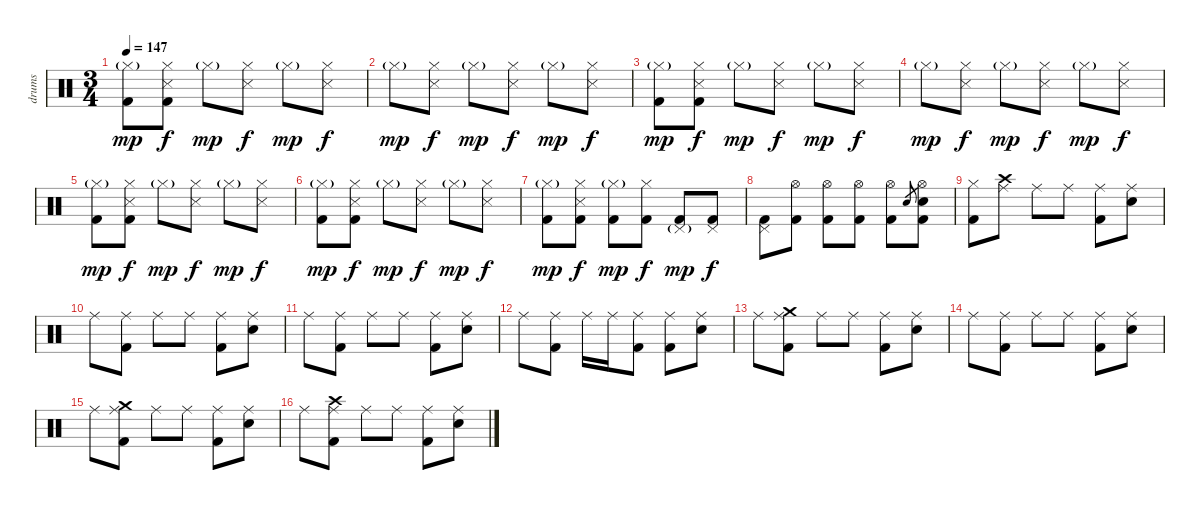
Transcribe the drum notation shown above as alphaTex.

\track ("drums" "drums") {instrument percussion}
\staff {score}
\articulation defaults
\ts (3 4)
\tempo 147
\clef neutral
\ks c
("Hi-Hat (closed)"{g} "Kick (hit) 2").8{dy mp} ("Hi-Hat (closed)" "Snare (side stick) 3" "Kick (hit) 2").8{dy f} "Hi-Hat (closed)"{g}.8{dy mp} ("Hi-Hat (closed)" "Snare (side stick) 3").8{dy f} "Hi-Hat (closed)"{g}.8{dy mp} ("Hi-Hat (closed)" "Snare (side stick) 3").8{dy f} |
"Hi-Hat (closed)"{g}.8{dy mp} ("Hi-Hat (closed)" "Snare (side stick) 3").8{dy f} "Hi-Hat (closed)"{g}.8{dy mp} ("Hi-Hat (closed)" "Snare (side stick) 3").8{dy f} "Hi-Hat (closed)"{g}.8{dy mp} ("Hi-Hat (closed)" "Snare (side stick) 3").8{dy f} |
("Hi-Hat (closed)"{g} "Kick (hit) 2").8{dy mp} ("Hi-Hat (closed)" "Snare (side stick) 3" "Kick (hit) 2").8{dy f} "Hi-Hat (closed)"{g}.8{dy mp} ("Hi-Hat (closed)" "Snare (side stick) 3").8{dy f} "Hi-Hat (closed)"{g}.8{dy mp} ("Hi-Hat (closed)" "Snare (side stick) 3").8{dy f} |
"Hi-Hat (closed)"{g}.8{dy mp} ("Hi-Hat (closed)" "Snare (side stick) 3").8{dy f} "Hi-Hat (closed)"{g}.8{dy mp} ("Hi-Hat (closed)" "Snare (side stick) 3").8{dy f} "Hi-Hat (closed)"{g}.8{dy mp} ("Hi-Hat (closed)" "Snare (side stick) 3").8{dy f} |
("Hi-Hat (closed)"{g} "Kick (hit) 2").8{dy mp} ("Hi-Hat (closed)" "Snare (side stick) 3" "Kick (hit) 2").8{dy f} "Hi-Hat (closed)"{g}.8{dy mp} ("Hi-Hat (closed)" "Snare (side stick) 3").8{dy f} "Hi-Hat (closed)"{g}.8{dy mp} ("Hi-Hat (closed)" "Snare (side stick) 3").8{dy f} |
("Hi-Hat (closed)"{g} "Kick (hit) 2").8{dy mp} ("Hi-Hat (closed)" "Snare (side stick) 3" "Kick (hit) 2").8{dy f} "Hi-Hat (closed)"{g}.8{dy mp} ("Hi-Hat (closed)" "Snare (side stick) 3").8{dy f} "Hi-Hat (closed)"{g}.8{dy mp} ("Hi-Hat (closed)" "Snare (side stick) 3").8{dy f} |
("Hi-Hat (closed)"{g} "Kick (hit) 2").8{dy mp} ("Hi-Hat (closed)" "Snare (side stick) 3" "Kick (hit) 2").8{dy f} ("Hi-Hat (closed)"{g} "Kick (hit) 2").8{dy mp} ("Hi-Hat (closed)" "Kick (hit) 2").8{dy f} ("Pedal Hi-Hat (hit)"{g} "Kick (hit) 2").8{dy mp} ("Pedal Hi-Hat (hit)" "Kick (hit) 2").8{dy f} |
("Pedal Hi-Hat (hit)" "Kick (hit) 2").8 ("Hi-Hat (open)" "Kick (hit) 2").8 ("Hi-Hat (open)" "Kick (hit) 2").8 ("Hi-Hat (open)" "Kick (hit) 2").8 ("Hi-Hat (open)" "Kick (hit) 2").8 "Snare (hit) 2".8{gr} ("Hi-Hat (open)" "Snare (hit) 2" "Kick (hit) 2").8 |
("Hi-Hat (closed)" "Kick (hit) 2").8 ("Crash high (hit)" "Ride (middle)").8 "Ride (middle)".8 "Ride (middle)".8 ("Ride (middle)" "Kick (hit) 2").8 ("Ride (middle)" "Snare (hit) 2").8 |
"Ride (middle)".8 ("Ride (middle)" "Kick (hit) 2").8 "Ride (middle)".8 "Ride (middle)".8 ("Ride (middle)" "Kick (hit) 2").8 ("Ride (middle)" "Snare (hit) 2").8 |
"Ride (middle)".8 ("Ride (middle)" "Kick (hit) 2").8 "Ride (middle)".8 "Ride (middle)".8 ("Ride (middle)" "Kick (hit) 2").8 ("Ride (middle)" "Snare (hit) 2").8 |
"Ride (middle)".8 ("Ride (middle)" "Kick (hit) 2").8 "Ride (middle)".16 "Ride (middle)".16 ("Ride (middle)" "Kick (hit) 2").8 ("Ride (middle)" "Kick (hit) 2").8 ("Ride (middle)" "Snare (hit) 2").8 |
"Ride (middle)".8 ("Crash medium (hit)" "Ride (middle)" "Kick (hit) 2").8 "Ride (middle)".8 "Ride (middle)".8 ("Ride (middle)" "Kick (hit) 2").8 ("Ride (middle)" "Snare (hit) 2").8 |
"Ride (middle)".8 ("Ride (middle)" "Kick (hit) 2").8 "Ride (middle)".8 "Ride (middle)".8 ("Ride (middle)" "Kick (hit) 2").8 ("Ride (middle)" "Snare (hit) 2").8 |
"Ride (middle)".8 ("Crash medium (hit)" "Ride (middle)" "Kick (hit) 2").8 "Ride (middle)".8 "Ride (middle)".8 ("Ride (middle)" "Kick (hit) 2").8 ("Ride (middle)" "Snare (hit) 2").8 |
"Ride (middle)".8 ("Crash high (hit)" "Ride (middle)" "Kick (hit) 2").8 "Ride (middle)".8 "Ride (middle)".8 ("Ride (middle)" "Kick (hit) 2").8 ("Ride (middle)" "Snare (hit) 2").8
